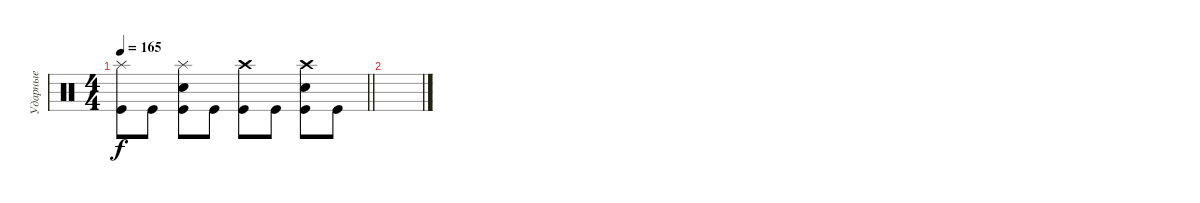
\track ("Ударные" "Ударные") {instrument percussion}
\staff {score}
\articulation defaults
\ts (4 4)
\tempo 165
\clef neutral
\barLineRight lightlight
\ks c
("Splash (hit)" "Kick (hit)").8{dy f} "Kick (hit)".8 ("Splash (hit)" "Electric Snare (hit)" "Kick (hit)").8 "Kick (hit)".8 ("Crash high (hit)" "Kick (hit)").8 "Kick (hit)".8 ("Crash high (hit)" "Electric Snare (hit)" "Kick (hit)").8 "Kick (hit)".8 |
\section ("" " ")
